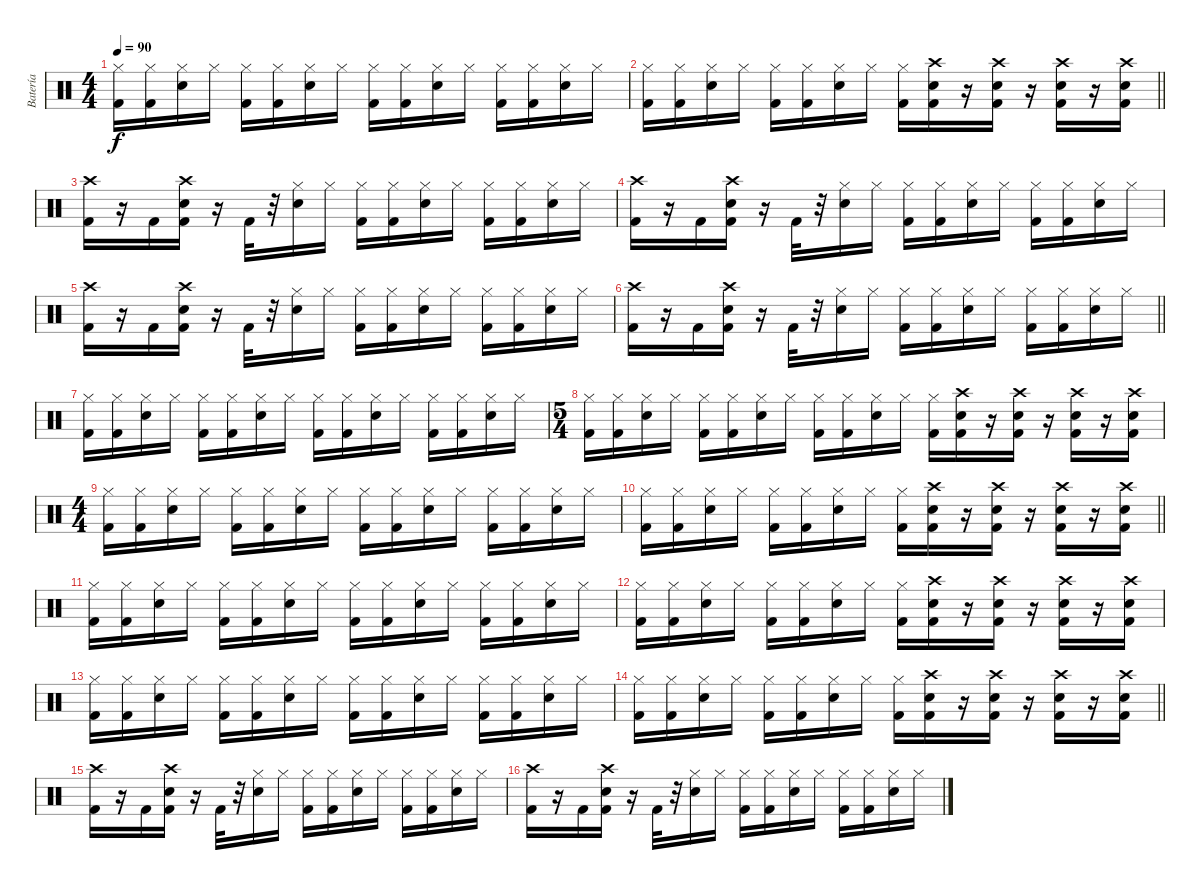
\track ("Batería   (Jony)" "Batería   ") {instrument percussion}
\staff {score}
\articulation defaults
\ts (4 4)
\tempo 90
\clef neutral
\ks c
("Hi-Hat (closed)" "Kick (hit) 2").16{dy f} ("Hi-Hat (closed)" "Kick (hit) 2").16 ("Hi-Hat (closed)" "Electric Snare (hit)").16 "Hi-Hat (closed)".16 ("Hi-Hat (closed)" "Kick (hit) 2").16 ("Hi-Hat (closed)" "Kick (hit) 2").16 ("Hi-Hat (closed)" "Electric Snare (hit)").16 "Hi-Hat (closed)".16 ("Hi-Hat (closed)" "Kick (hit) 2").16 ("Hi-Hat (closed)" "Kick (hit) 2").16 ("Hi-Hat (closed)" "Electric Snare (hit)").16 "Hi-Hat (closed)".16 ("Hi-Hat (closed)" "Kick (hit) 2").16 ("Hi-Hat (closed)" "Kick (hit) 2").16 ("Hi-Hat (closed)" "Electric Snare (hit)").16 "Hi-Hat (closed)".16 |
\barLineRight lightlight
("Hi-Hat (closed)" "Kick (hit) 2").16 ("Hi-Hat (closed)" "Kick (hit) 2").16 ("Hi-Hat (closed)" "Electric Snare (hit)").16 "Hi-Hat (closed)".16 ("Hi-Hat (closed)" "Kick (hit) 2").16 ("Hi-Hat (closed)" "Kick (hit) 2").16 ("Hi-Hat (closed)" "Electric Snare (hit)").16 "Hi-Hat (closed)".16 ("Hi-Hat (closed)" "Kick (hit) 2").16 ("Crash high (hit)" "Electric Snare (hit)" "Kick (hit) 2").16 r.16 ("Crash high (hit)" "Electric Snare (hit)" "Kick (hit) 2").16 r.16 ("Crash high (hit)" "Electric Snare (hit)" "Kick (hit) 2").16 r.16 ("Crash high (hit)" "Electric Snare (hit)" "Kick (hit) 2").16 |
("Crash high (hit)" "Kick (hit) 2").16 r.16 "Kick (hit) 2".16 ("Crash high (hit)" "Electric Snare (hit)" "Kick (hit) 2").16 r.16 "Kick (hit) 2".32 r.32 ("Hi-Hat (closed)" "Electric Snare (hit)").16 "Hi-Hat (closed)".16 ("Hi-Hat (closed)" "Kick (hit) 2").16 ("Hi-Hat (closed)" "Kick (hit) 2").16 ("Hi-Hat (closed)" "Electric Snare (hit)").16 "Hi-Hat (closed)".16 ("Hi-Hat (closed)" "Kick (hit) 2").16 ("Hi-Hat (closed)" "Kick (hit) 2").16 ("Hi-Hat (closed)" "Electric Snare (hit)").16 "Hi-Hat (closed)".16 |
("Crash high (hit)" "Kick (hit) 2").16 r.16 "Kick (hit) 2".16 ("Crash high (hit)" "Electric Snare (hit)" "Kick (hit) 2").16 r.16 "Kick (hit) 2".32 r.32 ("Hi-Hat (closed)" "Electric Snare (hit)").16 "Hi-Hat (closed)".16 ("Hi-Hat (closed)" "Kick (hit) 2").16 ("Hi-Hat (closed)" "Kick (hit) 2").16 ("Hi-Hat (closed)" "Electric Snare (hit)").16 "Hi-Hat (closed)".16 ("Hi-Hat (closed)" "Kick (hit) 2").16 ("Hi-Hat (closed)" "Kick (hit) 2").16 ("Hi-Hat (closed)" "Electric Snare (hit)").16 "Hi-Hat (closed)".16 |
("Crash high (hit)" "Kick (hit) 2").16 r.16 "Kick (hit) 2".16 ("Crash high (hit)" "Electric Snare (hit)" "Kick (hit) 2").16 r.16 "Kick (hit) 2".32 r.32 ("Hi-Hat (closed)" "Electric Snare (hit)").16 "Hi-Hat (closed)".16 ("Hi-Hat (closed)" "Kick (hit) 2").16 ("Hi-Hat (closed)" "Kick (hit) 2").16 ("Hi-Hat (closed)" "Electric Snare (hit)").16 "Hi-Hat (closed)".16 ("Hi-Hat (closed)" "Kick (hit) 2").16 ("Hi-Hat (closed)" "Kick (hit) 2").16 ("Hi-Hat (closed)" "Electric Snare (hit)").16 "Hi-Hat (closed)".16 |
\barLineRight lightlight
("Crash high (hit)" "Kick (hit) 2").16 r.16 "Kick (hit) 2".16 ("Crash high (hit)" "Electric Snare (hit)" "Kick (hit) 2").16 r.16 "Kick (hit) 2".32 r.32 ("Hi-Hat (closed)" "Electric Snare (hit)").16 "Hi-Hat (closed)".16 ("Hi-Hat (closed)" "Kick (hit) 2").16 ("Hi-Hat (closed)" "Kick (hit) 2").16 ("Hi-Hat (closed)" "Electric Snare (hit)").16 "Hi-Hat (closed)".16 ("Hi-Hat (closed)" "Kick (hit) 2").16 ("Hi-Hat (closed)" "Kick (hit) 2").16 ("Hi-Hat (closed)" "Electric Snare (hit)").16 "Hi-Hat (closed)".16 |
("Hi-Hat (closed)" "Kick (hit) 2").16 ("Hi-Hat (closed)" "Kick (hit) 2").16 ("Hi-Hat (closed)" "Electric Snare (hit)").16 "Hi-Hat (closed)".16 ("Hi-Hat (closed)" "Kick (hit) 2").16 ("Hi-Hat (closed)" "Kick (hit) 2").16 ("Hi-Hat (closed)" "Electric Snare (hit)").16 "Hi-Hat (closed)".16 ("Hi-Hat (closed)" "Kick (hit) 2").16 ("Hi-Hat (closed)" "Kick (hit) 2").16 ("Hi-Hat (closed)" "Electric Snare (hit)").16 "Hi-Hat (closed)".16 ("Hi-Hat (closed)" "Kick (hit) 2").16 ("Hi-Hat (closed)" "Kick (hit) 2").16 ("Hi-Hat (closed)" "Electric Snare (hit)").16 "Hi-Hat (closed)".16 |
\ts (5 4)
("Hi-Hat (closed)" "Kick (hit) 2").16 ("Hi-Hat (closed)" "Kick (hit) 2").16 ("Hi-Hat (closed)" "Electric Snare (hit)").16 "Hi-Hat (closed)".16 ("Hi-Hat (closed)" "Kick (hit) 2").16 ("Hi-Hat (closed)" "Kick (hit) 2").16 ("Hi-Hat (closed)" "Electric Snare (hit)").16 "Hi-Hat (closed)".16 ("Hi-Hat (closed)" "Kick (hit) 2").16 ("Hi-Hat (closed)" "Kick (hit) 2").16 ("Hi-Hat (closed)" "Electric Snare (hit)").16 "Hi-Hat (closed)".16 ("Hi-Hat (closed)" "Kick (hit) 2").16 ("Crash high (hit)" "Electric Snare (hit)" "Kick (hit) 2").16 r.16 ("Crash high (hit)" "Electric Snare (hit)" "Kick (hit) 2").16 r.16 ("Crash high (hit)" "Electric Snare (hit)" "Kick (hit) 2").16 r.16 ("Crash high (hit)" "Electric Snare (hit)" "Kick (hit) 2").16 |
\ts (4 4)
("Hi-Hat (closed)" "Kick (hit) 2").16 ("Hi-Hat (closed)" "Kick (hit) 2").16 ("Hi-Hat (closed)" "Electric Snare (hit)").16 "Hi-Hat (closed)".16 ("Hi-Hat (closed)" "Kick (hit) 2").16 ("Hi-Hat (closed)" "Kick (hit) 2").16 ("Hi-Hat (closed)" "Electric Snare (hit)").16 "Hi-Hat (closed)".16 ("Hi-Hat (closed)" "Kick (hit) 2").16 ("Hi-Hat (closed)" "Kick (hit) 2").16 ("Hi-Hat (closed)" "Electric Snare (hit)").16 "Hi-Hat (closed)".16 ("Hi-Hat (closed)" "Kick (hit) 2").16 ("Hi-Hat (closed)" "Kick (hit) 2").16 ("Hi-Hat (closed)" "Electric Snare (hit)").16 "Hi-Hat (closed)".16 |
\barLineRight lightlight
("Hi-Hat (closed)" "Kick (hit) 2").16 ("Hi-Hat (closed)" "Kick (hit) 2").16 ("Hi-Hat (closed)" "Electric Snare (hit)").16 "Hi-Hat (closed)".16 ("Hi-Hat (closed)" "Kick (hit) 2").16 ("Hi-Hat (closed)" "Kick (hit) 2").16 ("Hi-Hat (closed)" "Electric Snare (hit)").16 "Hi-Hat (closed)".16 ("Hi-Hat (closed)" "Kick (hit) 2").16 ("Crash high (hit)" "Electric Snare (hit)" "Kick (hit) 2").16 r.16 ("Crash high (hit)" "Electric Snare (hit)" "Kick (hit) 2").16 r.16 ("Crash high (hit)" "Electric Snare (hit)" "Kick (hit) 2").16 r.16 ("Crash high (hit)" "Electric Snare (hit)" "Kick (hit) 2").16 |
("Hi-Hat (closed)" "Kick (hit) 2").16 ("Hi-Hat (closed)" "Kick (hit) 2").16 ("Hi-Hat (closed)" "Electric Snare (hit)").16 "Hi-Hat (closed)".16 ("Hi-Hat (closed)" "Kick (hit) 2").16 ("Hi-Hat (closed)" "Kick (hit) 2").16 ("Hi-Hat (closed)" "Electric Snare (hit)").16 "Hi-Hat (closed)".16 ("Hi-Hat (closed)" "Kick (hit) 2").16 ("Hi-Hat (closed)" "Kick (hit) 2").16 ("Hi-Hat (closed)" "Electric Snare (hit)").16 "Hi-Hat (closed)".16 ("Hi-Hat (closed)" "Kick (hit) 2").16 ("Hi-Hat (closed)" "Kick (hit) 2").16 ("Hi-Hat (closed)" "Electric Snare (hit)").16 "Hi-Hat (closed)".16 |
("Hi-Hat (closed)" "Kick (hit) 2").16 ("Hi-Hat (closed)" "Kick (hit) 2").16 ("Hi-Hat (closed)" "Electric Snare (hit)").16 "Hi-Hat (closed)".16 ("Hi-Hat (closed)" "Kick (hit) 2").16 ("Hi-Hat (closed)" "Kick (hit) 2").16 ("Hi-Hat (closed)" "Electric Snare (hit)").16 "Hi-Hat (closed)".16 ("Hi-Hat (closed)" "Kick (hit) 2").16 ("Crash high (hit)" "Electric Snare (hit)" "Kick (hit) 2").16 r.16 ("Crash high (hit)" "Electric Snare (hit)" "Kick (hit) 2").16 r.16 ("Crash high (hit)" "Electric Snare (hit)" "Kick (hit) 2").16 r.16 ("Crash high (hit)" "Electric Snare (hit)" "Kick (hit) 2").16 |
("Hi-Hat (closed)" "Kick (hit) 2").16 ("Hi-Hat (closed)" "Kick (hit) 2").16 ("Hi-Hat (closed)" "Electric Snare (hit)").16 "Hi-Hat (closed)".16 ("Hi-Hat (closed)" "Kick (hit) 2").16 ("Hi-Hat (closed)" "Kick (hit) 2").16 ("Hi-Hat (closed)" "Electric Snare (hit)").16 "Hi-Hat (closed)".16 ("Hi-Hat (closed)" "Kick (hit) 2").16 ("Hi-Hat (closed)" "Kick (hit) 2").16 ("Hi-Hat (closed)" "Electric Snare (hit)").16 "Hi-Hat (closed)".16 ("Hi-Hat (closed)" "Kick (hit) 2").16 ("Hi-Hat (closed)" "Kick (hit) 2").16 ("Hi-Hat (closed)" "Electric Snare (hit)").16 "Hi-Hat (closed)".16 |
\barLineRight lightlight
("Hi-Hat (closed)" "Kick (hit) 2").16 ("Hi-Hat (closed)" "Kick (hit) 2").16 ("Hi-Hat (closed)" "Electric Snare (hit)").16 "Hi-Hat (closed)".16 ("Hi-Hat (closed)" "Kick (hit) 2").16 ("Hi-Hat (closed)" "Kick (hit) 2").16 ("Hi-Hat (closed)" "Electric Snare (hit)").16 "Hi-Hat (closed)".16 ("Hi-Hat (closed)" "Kick (hit) 2").16 ("Crash high (hit)" "Electric Snare (hit)" "Kick (hit) 2").16 r.16 ("Crash high (hit)" "Electric Snare (hit)" "Kick (hit) 2").16 r.16 ("Crash high (hit)" "Electric Snare (hit)" "Kick (hit) 2").16 r.16 ("Crash high (hit)" "Electric Snare (hit)" "Kick (hit) 2").16 |
("Crash high (hit)" "Kick (hit) 2").16 r.16 "Kick (hit) 2".16 ("Crash high (hit)" "Electric Snare (hit)" "Kick (hit) 2").16 r.16 "Kick (hit) 2".32 r.32 ("Hi-Hat (closed)" "Electric Snare (hit)").16 "Hi-Hat (closed)".16 ("Hi-Hat (closed)" "Kick (hit) 2").16 ("Hi-Hat (closed)" "Kick (hit) 2").16 ("Hi-Hat (closed)" "Electric Snare (hit)").16 "Hi-Hat (closed)".16 ("Hi-Hat (closed)" "Kick (hit) 2").16 ("Hi-Hat (closed)" "Kick (hit) 2").16 ("Hi-Hat (closed)" "Electric Snare (hit)").16 "Hi-Hat (closed)".16 |
("Crash high (hit)" "Kick (hit) 2").16 r.16 "Kick (hit) 2".16 ("Crash high (hit)" "Electric Snare (hit)" "Kick (hit) 2").16 r.16 "Kick (hit) 2".32 r.32 ("Hi-Hat (closed)" "Electric Snare (hit)").16 "Hi-Hat (closed)".16 ("Hi-Hat (closed)" "Kick (hit) 2").16 ("Hi-Hat (closed)" "Kick (hit) 2").16 ("Hi-Hat (closed)" "Electric Snare (hit)").16 "Hi-Hat (closed)".16 ("Hi-Hat (closed)" "Kick (hit) 2").16 ("Hi-Hat (closed)" "Kick (hit) 2").16 ("Hi-Hat (closed)" "Electric Snare (hit)").16 "Hi-Hat (closed)".16
